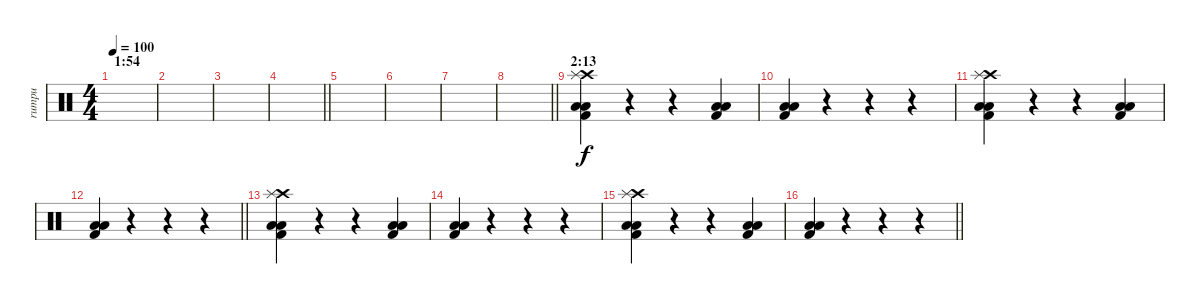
\track ("rumpu" "rumpu") {instrument percussion}
\staff {score}
\articulation defaults
\ts (4 4)
\section ("" "1:54")
\tempo 100
\clef neutral
\ks c
|
|
|
\barLineRight lightlight
|
|
|
|
\barLineRight lightlight
|
\section ("" "2:13")
("Kick (hit) 2" "Low Tom (hit)" "Low Floor Tom (hit)" "Crash high (hit)" "Splash (hit)").4 r.4 r.4 ("Kick (hit) 2" "Low Tom (hit)" "Low Floor Tom (hit)").4 |
("Kick (hit) 2" "Low Tom (hit)" "Low Floor Tom (hit)").4 r.4 r.4 r.4 |
("Kick (hit) 2" "Low Tom (hit)" "Low Floor Tom (hit)" "Crash high (hit)" "Splash (hit)").4 r.4 r.4 ("Kick (hit) 2" "Low Tom (hit)" "Low Floor Tom (hit)").4 |
\barLineRight lightlight
("Kick (hit) 2" "Low Tom (hit)" "Low Floor Tom (hit)").4 r.4 r.4 r.4 |
("Kick (hit) 2" "Low Tom (hit)" "Low Floor Tom (hit)" "Crash high (hit)" "Splash (hit)").4 r.4 r.4 ("Kick (hit) 2" "Low Tom (hit)" "Low Floor Tom (hit)").4 |
("Kick (hit) 2" "Low Tom (hit)" "Low Floor Tom (hit)").4 r.4 r.4 r.4 |
("Kick (hit) 2" "Low Tom (hit)" "Low Floor Tom (hit)" "Crash high (hit)" "Splash (hit)").4 r.4 r.4 ("Kick (hit) 2" "Low Tom (hit)" "Low Floor Tom (hit)").4 |
\barLineRight lightlight
("Kick (hit) 2" "Low Tom (hit)" "Low Floor Tom (hit)").4 r.4 r.4 r.4
